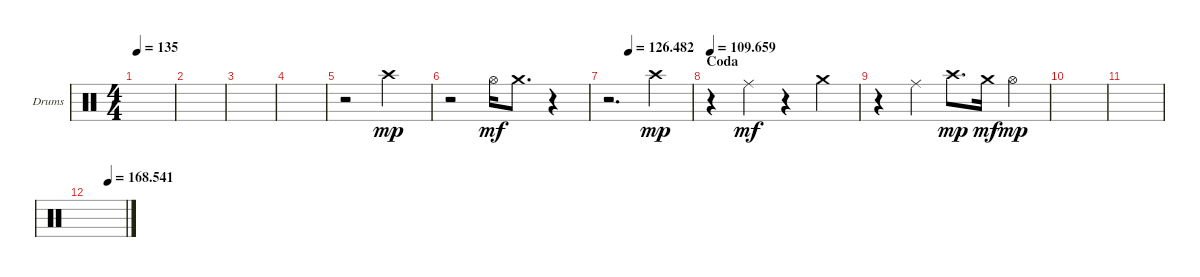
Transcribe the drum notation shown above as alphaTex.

\bracketExtendMode groupsimilarinstruments
\firstSystemTrackNameOrientation horizontal
\otherSystemsTrackNameOrientation horizontal
\track ("OH" "Drums") {instrument percussion}
\staff {score}
\articulation defaults
\ts (4 4)
\tempo 135
\clef neutral
\ks c
|
|
|
|
r.2 "Crash high (hit)".2{dy mp} |
r.2 "Hi-Hat (open)".16{dy mf} "Crash medium (hit)".8{d} r.4 |
\tempo (126.482 0.25)
r.2{d} "Crash high (hit)".4{dy mp} |
\section ("" "Coda")
\tempo
109.659 r.4 "Ride (middle)".4{dy mf} r.4 "Crash medium (hit)".4 |
r.4 "Ride (middle)".4 "Crash high (hit)".8{d dy mp} "Crash medium (hit)".16{dy mf} "Hi-Hat (open)".4{dy mp} |
|
|
\tempo (168.541 0.53125)
